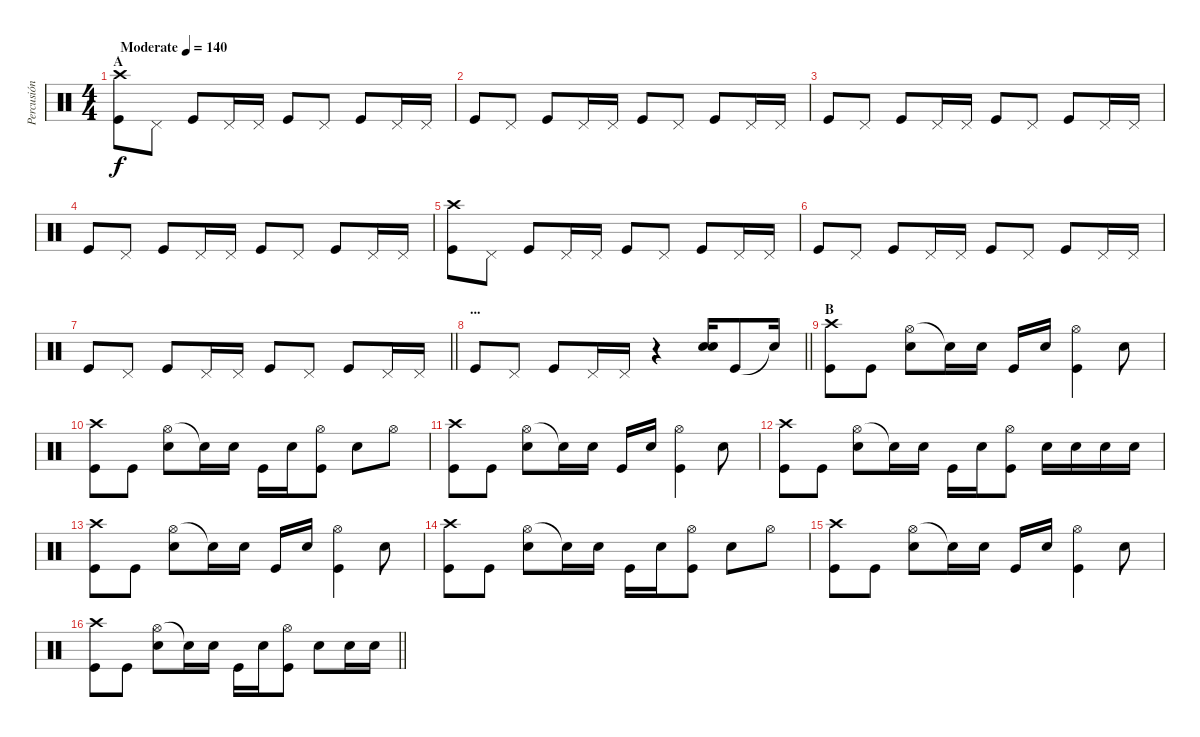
\track ("Percusión" "Percusión") {instrument percussion}
\staff {score}
\articulation defaults
\ts (4 4)
\section ("" "A")
\tempo (140 "Moderate")
\clef neutral
\ks c
("Crash high (hit)" "Kick (hit)").8{dy f} "Pedal Hi-Hat (hit)".8 "Kick (hit)".8 "Pedal Hi-Hat (hit)".16 "Pedal Hi-Hat (hit)".16 "Kick (hit)".8 "Pedal Hi-Hat (hit)".8 "Kick (hit)".8 "Pedal Hi-Hat (hit)".16 "Pedal Hi-Hat (hit)".16 |
"Kick (hit)".8 "Pedal Hi-Hat (hit)".8 "Kick (hit)".8 "Pedal Hi-Hat (hit)".16 "Pedal Hi-Hat (hit)".16 "Kick (hit)".8 "Pedal Hi-Hat (hit)".8 "Kick (hit)".8 "Pedal Hi-Hat (hit)".16 "Pedal Hi-Hat (hit)".16 |
"Kick (hit)".8 "Pedal Hi-Hat (hit)".8 "Kick (hit)".8 "Pedal Hi-Hat (hit)".16 "Pedal Hi-Hat (hit)".16 "Kick (hit)".8 "Pedal Hi-Hat (hit)".8 "Kick (hit)".8 "Pedal Hi-Hat (hit)".16 "Pedal Hi-Hat (hit)".16 |
"Kick (hit)".8 "Pedal Hi-Hat (hit)".8 "Kick (hit)".8 "Pedal Hi-Hat (hit)".16 "Pedal Hi-Hat (hit)".16 "Kick (hit)".8 "Pedal Hi-Hat (hit)".8 "Kick (hit)".8 "Pedal Hi-Hat (hit)".16 "Pedal Hi-Hat (hit)".16 |
("Crash high (hit)" "Kick (hit)").8 "Pedal Hi-Hat (hit)".8 "Kick (hit)".8 "Pedal Hi-Hat (hit)".16 "Pedal Hi-Hat (hit)".16 "Kick (hit)".8 "Pedal Hi-Hat (hit)".8 "Kick (hit)".8 "Pedal Hi-Hat (hit)".16 "Pedal Hi-Hat (hit)".16 |
"Kick (hit)".8 "Pedal Hi-Hat (hit)".8 "Kick (hit)".8 "Pedal Hi-Hat (hit)".16 "Pedal Hi-Hat (hit)".16 "Kick (hit)".8 "Pedal Hi-Hat (hit)".8 "Kick (hit)".8 "Pedal Hi-Hat (hit)".16 "Pedal Hi-Hat (hit)".16 |
\barLineRight lightlight "Kick (hit)".8 "Pedal Hi-Hat (hit)".8 "Kick (hit)".8 "Pedal Hi-Hat (hit)".16 "Pedal Hi-Hat (hit)".16 "Kick (hit)".8 "Pedal Hi-Hat (hit)".8 "Kick (hit)".8 "Pedal Hi-Hat (hit)".16 "Pedal Hi-Hat (hit)".16
|
\section ("" "...")
\barLineRight lightlight "Kick (hit)".8 "Pedal Hi-Hat (hit)".8 "Kick (hit)".8 "Pedal Hi-Hat (hit)".16 "Pedal Hi-Hat (hit)".16
r.4 ("Electric Snare (hit)" "Electric Snare (hit)").16 "Kick (hit)".8 "Snare (hit)"{t}.16 |
\section ("" "B")
("Crash high (hit)" "Kick (hit)").8 "Kick (hit)".8 ("Hi-Hat (open)" "Electric Snare (hit)").8 "Electric Snare (hit)"{t}.16 "Electric Snare (hit)".16 "Kick (hit)".16 "Electric Snare (hit)".16 ("Hi-Hat (open)" "Kick (hit)").4 "Electric Snare (hit)".8 |
("Crash high (hit)" "Kick (hit)").8 "Kick (hit)".8 ("Hi-Hat (open)" "Electric Snare (hit)").8 "Electric Snare (hit)"{t}.16 "Electric Snare (hit)".16 "Kick (hit)".16 "Electric Snare (hit)".16 ("Hi-Hat (open)" "Kick (hit)").8 "Electric Snare (hit)".8 "Hi-Hat (open)".8 |
("Crash high (hit)" "Kick (hit)").8 "Kick (hit)".8 ("Hi-Hat (open)" "Electric Snare (hit)").8 "Electric Snare (hit)"{t}.16 "Electric Snare (hit)".16 "Kick (hit)".16 "Electric Snare (hit)".16 ("Hi-Hat (open)" "Kick (hit)").4 "Electric Snare (hit)".8 |
("Crash high (hit)" "Kick (hit)").8 "Kick (hit)".8 ("Hi-Hat (open)" "Electric Snare (hit)").8 "Electric Snare (hit)"{t}.16 "Electric Snare (hit)".16 "Kick (hit)".16 "Electric Snare (hit)".16 ("Hi-Hat (open)" "Kick (hit)").8 "Electric Snare (hit)".16 "Electric Snare (hit)".16 "Electric Snare (hit)".16 "Electric Snare (hit)".16 |
("Crash high (hit)" "Kick (hit)").8 "Kick (hit)".8 ("Hi-Hat (open)" "Electric Snare (hit)").8 "Electric Snare (hit)"{t}.16 "Electric Snare (hit)".16 "Kick (hit)".16 "Electric Snare (hit)".16 ("Hi-Hat (open)" "Kick (hit)").4 "Electric Snare (hit)".8 |
("Crash high (hit)" "Kick (hit)").8 "Kick (hit)".8 ("Hi-Hat (open)" "Electric Snare (hit)").8 "Electric Snare (hit)"{t}.16 "Electric Snare (hit)".16 "Kick (hit)".16 "Electric Snare (hit)".16 ("Hi-Hat (open)" "Kick (hit)").8 "Electric Snare (hit)".8 "Hi-Hat (open)".8 |
("Crash high (hit)" "Kick (hit)").8 "Kick (hit)".8 ("Hi-Hat (open)" "Electric Snare (hit)").8 "Electric Snare (hit)"{t}.16 "Electric Snare (hit)".16 "Kick (hit)".16 "Electric Snare (hit)".16 ("Hi-Hat (open)" "Kick (hit)").4 "Electric Snare (hit)".8 |
\barLineRight lightlight
("Crash high (hit)" "Kick (hit)").8 "Kick (hit)".8 ("Hi-Hat (open)" "Electric Snare (hit)").8 "Electric Snare (hit)"{t}.16 "Electric Snare (hit)".16 "Kick (hit)".16 "Electric Snare (hit)".16 ("Hi-Hat (open)" "Kick (hit)").8 "Electric Snare (hit)".8 "Electric Snare (hit)".16 "Electric Snare (hit)".16
